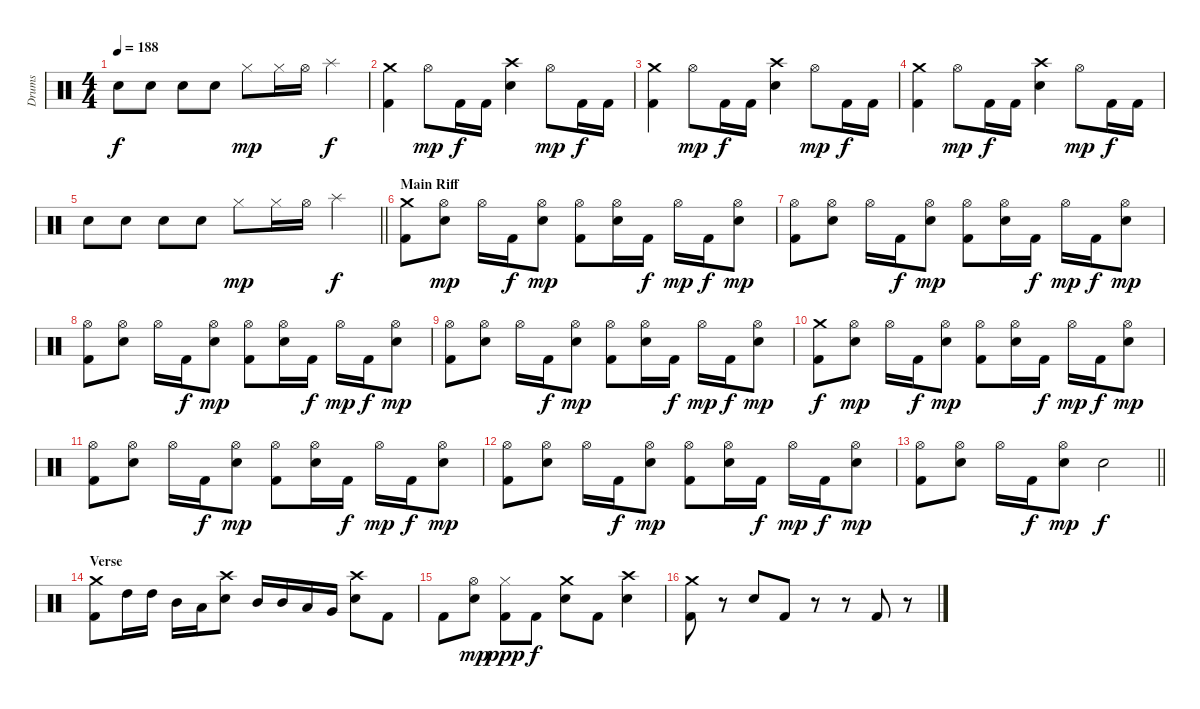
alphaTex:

\track ("Drums" "Drums") {instrument percussion}
\staff {score}
\articulation defaults
\ts (4 4)
\tempo 188
\clef neutral
\ks c "Snare (hit) 2".8{dy f} "Snare (hit) 2".8 "Snare (hit) 2".8 "Snare (hit) 2".8 "Hi-Hat (closed)".8{dy mp} "Hi-Hat (closed)".16 "Hi-Hat (open)".16 "Splash (hit)".4{dy f}
|
("Crash medium (hit)" "Kick (hit) 2").4 "Hi-Hat (open)".8{dy mp} "Kick (hit) 2".16{dy f} "Kick (hit) 2".16 ("Crash high (hit)" "Snare (hit) 2").4 "Hi-Hat (open)".8{dy mp} "Kick (hit) 2".16{dy f} "Kick (hit) 2".16 |
("Crash medium (hit)" "Kick (hit) 2").4 "Hi-Hat (open)".8{dy mp} "Kick (hit) 2".16{dy f} "Kick (hit) 2".16 ("Crash high (hit)" "Snare (hit) 2").4 "Hi-Hat (open)".8{dy mp} "Kick (hit) 2".16{dy f} "Kick (hit) 2".16 |
("Crash medium (hit)" "Kick (hit) 2").4 "Hi-Hat (open)".8{dy mp} "Kick (hit) 2".16{dy f} "Kick (hit) 2".16 ("Crash high (hit)" "Snare (hit) 2").4 "Hi-Hat (open)".8{dy mp} "Kick (hit) 2".16{dy f} "Kick (hit) 2".16 |
\barLineRight lightlight "Snare (hit) 2".8 "Snare (hit) 2".8 "Snare (hit) 2".8 "Snare (hit) 2".8 "Hi-Hat (closed)".8{dy mp} "Hi-Hat (closed)".16 "Hi-Hat (open)".16 "Splash (hit)".4{dy f}
|
\section ("" "Main Riff")
("Crash medium (hit)" "Kick (hit) 2").8 ("Hi-Hat (open)" "Snare (hit) 2").8{dy mp} "Hi-Hat (open)".16 "Kick (hit) 2".16{dy f} ("Hi-Hat (open)" "Snare (hit) 2").8{dy mp} ("Hi-Hat (open)" "Kick (hit) 2").8 ("Hi-Hat (open)" "Snare (hit) 2").16 "Kick (hit) 2".16{dy f} "Hi-Hat (open)".16{dy mp} "Kick (hit) 2".16{dy f} ("Hi-Hat (open)" "Snare (hit) 2").8{dy mp} |
("Hi-Hat (open)" "Kick (hit) 2").8 ("Hi-Hat (open)" "Snare (hit) 2").8 "Hi-Hat (open)".16 "Kick (hit) 2".16{dy f} ("Hi-Hat (open)" "Snare (hit) 2").8{dy mp} ("Hi-Hat (open)" "Kick (hit) 2").8 ("Hi-Hat (open)" "Snare (hit) 2").16 "Kick (hit) 2".16{dy f} "Hi-Hat (open)".16{dy mp} "Kick (hit) 2".16{dy f} ("Hi-Hat (open)" "Snare (hit) 2").8{dy mp} |
("Hi-Hat (open)" "Kick (hit) 2").8 ("Hi-Hat (open)" "Snare (hit) 2").8 "Hi-Hat (open)".16 "Kick (hit) 2".16{dy f} ("Hi-Hat (open)" "Snare (hit) 2").8{dy mp} ("Hi-Hat (open)" "Kick (hit) 2").8 ("Hi-Hat (open)" "Snare (hit) 2").16 "Kick (hit) 2".16{dy f} "Hi-Hat (open)".16{dy mp} "Kick (hit) 2".16{dy f} ("Hi-Hat (open)" "Snare (hit) 2").8{dy mp} |
("Hi-Hat (open)" "Kick (hit) 2").8 ("Hi-Hat (open)" "Snare (hit) 2").8 "Hi-Hat (open)".16 "Kick (hit) 2".16{dy f} ("Hi-Hat (open)" "Snare (hit) 2").8{dy mp} ("Hi-Hat (open)" "Kick (hit) 2").8 ("Hi-Hat (open)" "Snare (hit) 2").16 "Kick (hit) 2".16{dy f} "Hi-Hat (open)".16{dy mp} "Kick (hit) 2".16{dy f} ("Hi-Hat (open)" "Snare (hit) 2").8{dy mp} |
("Crash medium (hit)" "Kick (hit) 2").8{dy f} ("Hi-Hat (open)" "Snare (hit) 2").8{dy mp} "Hi-Hat (open)".16 "Kick (hit) 2".16{dy f} ("Hi-Hat (open)" "Snare (hit) 2").8{dy mp} ("Hi-Hat (open)" "Kick (hit) 2").8 ("Hi-Hat (open)" "Snare (hit) 2").16 "Kick (hit) 2".16{dy f} "Hi-Hat (open)".16{dy mp} "Kick (hit) 2".16{dy f} ("Hi-Hat (open)" "Snare (hit) 2").8{dy mp} |
("Hi-Hat (open)" "Kick (hit) 2").8 ("Hi-Hat (open)" "Snare (hit) 2").8 "Hi-Hat (open)".16 "Kick (hit) 2".16{dy f} ("Hi-Hat (open)" "Snare (hit) 2").8{dy mp} ("Hi-Hat (open)" "Kick (hit) 2").8 ("Hi-Hat (open)" "Snare (hit) 2").16 "Kick (hit) 2".16{dy f} "Hi-Hat (open)".16{dy mp} "Kick (hit) 2".16{dy f} ("Hi-Hat (open)" "Snare (hit) 2").8{dy mp} |
("Hi-Hat (open)" "Kick (hit) 2").8 ("Hi-Hat (open)" "Snare (hit) 2").8 "Hi-Hat (open)".16 "Kick (hit) 2".16{dy f} ("Hi-Hat (open)" "Snare (hit) 2").8{dy mp} ("Hi-Hat (open)" "Kick (hit) 2").8 ("Hi-Hat (open)" "Snare (hit) 2").16 "Kick (hit) 2".16{dy f} "Hi-Hat (open)".16{dy mp} "Kick (hit) 2".16{dy f} ("Hi-Hat (open)" "Snare (hit) 2").8{dy mp} |
\barLineRight lightlight
("Hi-Hat (open)" "Kick (hit) 2").8 ("Hi-Hat (open)" "Snare (hit) 2").8 "Hi-Hat (open)".16 "Kick (hit) 2".16{dy f} ("Hi-Hat (open)" "Snare (hit) 2").8{dy mp} "Snare (hit) 2".2{dy f} |
\section ("" "Verse")
("Crash medium (hit)" "Kick (hit) 2").8 "High Tom (hit)".16 "High Tom (hit)".16 "Mid Tom (hit)".16 "Low Tom (hit)".16 ("Crash high (hit)" "Snare (hit) 2").8 "Mid Tom (hit)".16 "Mid Tom (hit)".16 "Low Tom (hit)".16 "Very Low Tom (hit)".16 ("Crash high (hit)" "Snare (hit) 2").8 "Kick (hit) 2".8 |
"Kick (hit) 2".8 ("Hi-Hat (open)" "Snare (hit) 2").8{dy mp} ("Hi-Hat (closed)" "Kick (hit) 2").8{dy ppp} "Kick (hit) 2".8{dy f} ("Crash medium (hit)" "Snare (hit) 2").8 "Kick (hit) 2".8 ("Crash high (hit)" "Snare (hit) 2").4 |
("Crash medium (hit)" "Kick (hit) 2").8 r.8 "Snare (hit) 2".8 "Kick (hit) 2".8 r.8 r.8 "Kick (hit) 2".8 r.8
